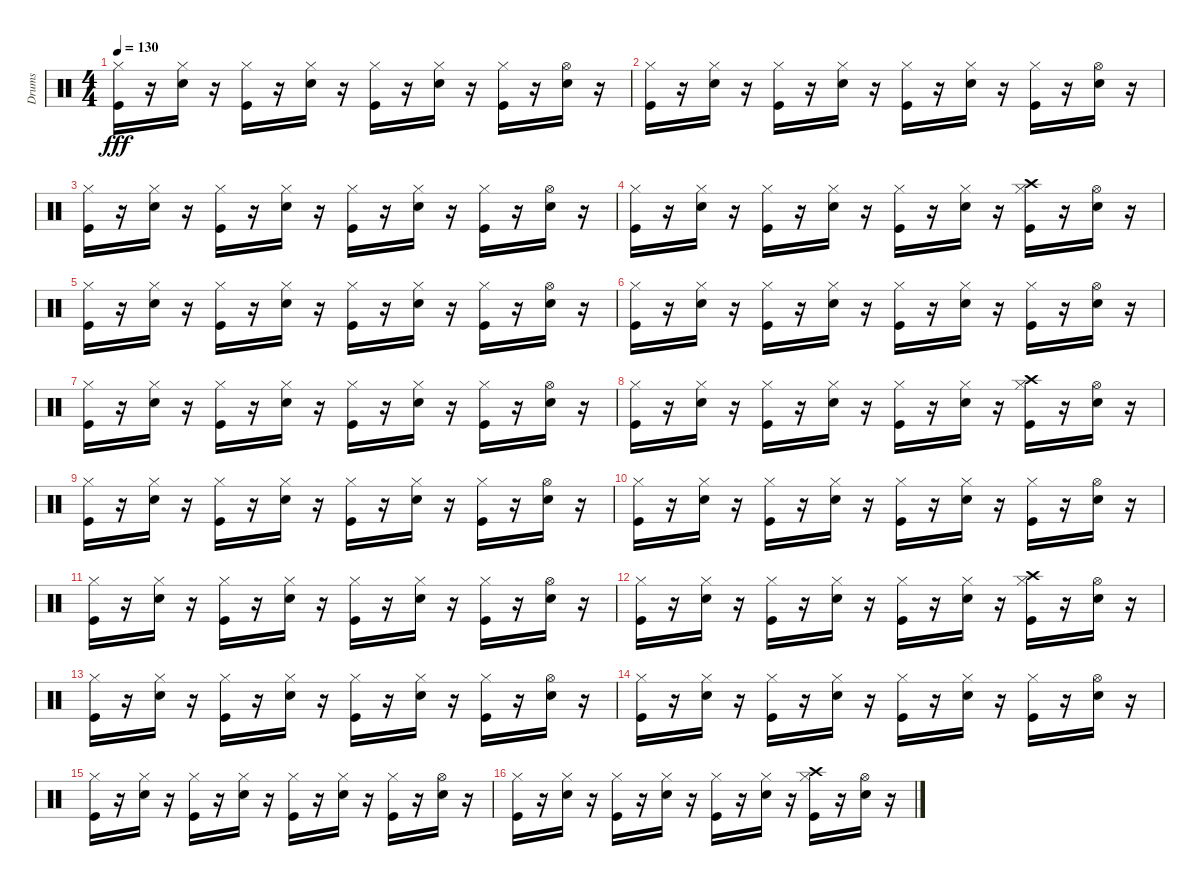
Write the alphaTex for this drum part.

\track ("Drums" "Drums") {instrument percussion}
\staff {score}
\articulation defaults
\ts (4 4)
\tempo 130
\clef neutral
\ks c
("Hi-Hat (closed)" "Kick (hit)").16{dy fff} r.16 ("Hi-Hat (closed)" "Electric Snare (hit)").16 r.16 ("Hi-Hat (closed)" "Kick (hit)").16 r.16 ("Hi-Hat (closed)" "Electric Snare (hit)").16 r.16 ("Hi-Hat (closed)" "Kick (hit)").16 r.16 ("Hi-Hat (closed)" "Electric Snare (hit)").16 r.16 ("Hi-Hat (closed)" "Kick (hit)").16 r.16 ("Hi-Hat (open)" "Electric Snare (hit)").16 r.16 |
("Hi-Hat (closed)" "Kick (hit)").16 r.16 ("Hi-Hat (closed)" "Electric Snare (hit)").16 r.16 ("Hi-Hat (closed)" "Kick (hit)").16 r.16 ("Hi-Hat (closed)" "Electric Snare (hit)").16 r.16 ("Hi-Hat (closed)" "Kick (hit)").16 r.16 ("Hi-Hat (closed)" "Electric Snare (hit)").16 r.16 ("Hi-Hat (closed)" "Kick (hit)").16 r.16 ("Hi-Hat (open)" "Electric Snare (hit)").16 r.16 |
("Hi-Hat (closed)" "Kick (hit)").16 r.16 ("Hi-Hat (closed)" "Electric Snare (hit)").16 r.16 ("Hi-Hat (closed)" "Kick (hit)").16 r.16 ("Hi-Hat (closed)" "Electric Snare (hit)").16 r.16 ("Hi-Hat (closed)" "Kick (hit)").16 r.16 ("Hi-Hat (closed)" "Electric Snare (hit)").16 r.16 ("Hi-Hat (closed)" "Kick (hit)").16 r.16 ("Hi-Hat (open)" "Electric Snare (hit)").16 r.16 |
("Hi-Hat (closed)" "Kick (hit)").16 r.16 ("Hi-Hat (closed)" "Electric Snare (hit)").16 r.16 ("Hi-Hat (closed)" "Kick (hit)").16 r.16 ("Hi-Hat (closed)" "Electric Snare (hit)").16 r.16 ("Hi-Hat (closed)" "Kick (hit)").16 r.16 ("Hi-Hat (closed)" "Electric Snare (hit)").16 r.16 ("Hi-Hat (closed)" "Crash high (hit)" "Kick (hit)").16 r.16 ("Hi-Hat (open)" "Electric Snare (hit)").16 r.16 |
("Hi-Hat (closed)" "Kick (hit)").16 r.16 ("Hi-Hat (closed)" "Electric Snare (hit)").16 r.16 ("Hi-Hat (closed)" "Kick (hit)").16 r.16 ("Hi-Hat (closed)" "Electric Snare (hit)").16 r.16 ("Hi-Hat (closed)" "Kick (hit)").16 r.16 ("Hi-Hat (closed)" "Electric Snare (hit)").16 r.16 ("Hi-Hat (closed)" "Kick (hit)").16 r.16 ("Hi-Hat (open)" "Electric Snare (hit)").16 r.16 |
("Hi-Hat (closed)" "Kick (hit)").16 r.16 ("Hi-Hat (closed)" "Electric Snare (hit)").16 r.16 ("Hi-Hat (closed)" "Kick (hit)").16 r.16 ("Hi-Hat (closed)" "Electric Snare (hit)").16 r.16 ("Hi-Hat (closed)" "Kick (hit)").16 r.16 ("Hi-Hat (closed)" "Electric Snare (hit)").16 r.16 ("Hi-Hat (closed)" "Kick (hit)").16 r.16 ("Hi-Hat (open)" "Electric Snare (hit)").16 r.16 |
("Hi-Hat (closed)" "Kick (hit)").16 r.16 ("Hi-Hat (closed)" "Electric Snare (hit)").16 r.16 ("Hi-Hat (closed)" "Kick (hit)").16 r.16 ("Hi-Hat (closed)" "Electric Snare (hit)").16 r.16 ("Hi-Hat (closed)" "Kick (hit)").16 r.16 ("Hi-Hat (closed)" "Electric Snare (hit)").16 r.16 ("Hi-Hat (closed)" "Kick (hit)").16 r.16 ("Hi-Hat (open)" "Electric Snare (hit)").16 r.16 |
("Hi-Hat (closed)" "Kick (hit)").16 r.16 ("Hi-Hat (closed)" "Electric Snare (hit)").16 r.16 ("Hi-Hat (closed)" "Kick (hit)").16 r.16 ("Hi-Hat (closed)" "Electric Snare (hit)").16 r.16 ("Hi-Hat (closed)" "Kick (hit)").16 r.16 ("Hi-Hat (closed)" "Electric Snare (hit)").16 r.16 ("Hi-Hat (closed)" "Crash high (hit)" "Kick (hit)").16 r.16 ("Hi-Hat (open)" "Electric Snare (hit)").16 r.16 |
("Hi-Hat (closed)" "Kick (hit)").16 r.16 ("Hi-Hat (closed)" "Electric Snare (hit)").16 r.16 ("Hi-Hat (closed)" "Kick (hit)").16 r.16 ("Hi-Hat (closed)" "Electric Snare (hit)").16 r.16 ("Hi-Hat (closed)" "Kick (hit)").16 r.16 ("Hi-Hat (closed)" "Electric Snare (hit)").16 r.16 ("Hi-Hat (closed)" "Kick (hit)").16 r.16 ("Hi-Hat (open)" "Electric Snare (hit)").16 r.16 |
("Hi-Hat (closed)" "Kick (hit)").16 r.16 ("Hi-Hat (closed)" "Electric Snare (hit)").16 r.16 ("Hi-Hat (closed)" "Kick (hit)").16 r.16 ("Hi-Hat (closed)" "Electric Snare (hit)").16 r.16 ("Hi-Hat (closed)" "Kick (hit)").16 r.16 ("Hi-Hat (closed)" "Electric Snare (hit)").16 r.16 ("Hi-Hat (closed)" "Kick (hit)").16 r.16 ("Hi-Hat (open)" "Electric Snare (hit)").16 r.16 |
("Hi-Hat (closed)" "Kick (hit)").16 r.16 ("Hi-Hat (closed)" "Electric Snare (hit)").16 r.16 ("Hi-Hat (closed)" "Kick (hit)").16 r.16 ("Hi-Hat (closed)" "Electric Snare (hit)").16 r.16 ("Hi-Hat (closed)" "Kick (hit)").16 r.16 ("Hi-Hat (closed)" "Electric Snare (hit)").16 r.16 ("Hi-Hat (closed)" "Kick (hit)").16 r.16 ("Hi-Hat (open)" "Electric Snare (hit)").16 r.16 |
("Hi-Hat (closed)" "Kick (hit)").16 r.16 ("Hi-Hat (closed)" "Electric Snare (hit)").16 r.16 ("Hi-Hat (closed)" "Kick (hit)").16 r.16 ("Hi-Hat (closed)" "Electric Snare (hit)").16 r.16 ("Hi-Hat (closed)" "Kick (hit)").16 r.16 ("Hi-Hat (closed)" "Electric Snare (hit)").16 r.16 ("Hi-Hat (closed)" "Crash high (hit)" "Kick (hit)").16 r.16 ("Hi-Hat (open)" "Electric Snare (hit)").16 r.16 |
("Hi-Hat (closed)" "Kick (hit)").16 r.16 ("Hi-Hat (closed)" "Electric Snare (hit)").16 r.16 ("Hi-Hat (closed)" "Kick (hit)").16 r.16 ("Hi-Hat (closed)" "Electric Snare (hit)").16 r.16 ("Hi-Hat (closed)" "Kick (hit)").16 r.16 ("Hi-Hat (closed)" "Electric Snare (hit)").16 r.16 ("Hi-Hat (closed)" "Kick (hit)").16 r.16 ("Hi-Hat (open)" "Electric Snare (hit)").16 r.16 |
("Hi-Hat (closed)" "Kick (hit)").16 r.16 ("Hi-Hat (closed)" "Electric Snare (hit)").16 r.16 ("Hi-Hat (closed)" "Kick (hit)").16 r.16 ("Hi-Hat (closed)" "Electric Snare (hit)").16 r.16 ("Hi-Hat (closed)" "Kick (hit)").16 r.16 ("Hi-Hat (closed)" "Electric Snare (hit)").16 r.16 ("Hi-Hat (closed)" "Kick (hit)").16 r.16 ("Hi-Hat (open)" "Electric Snare (hit)").16 r.16 |
("Hi-Hat (closed)" "Kick (hit)").16 r.16 ("Hi-Hat (closed)" "Electric Snare (hit)").16 r.16 ("Hi-Hat (closed)" "Kick (hit)").16 r.16 ("Hi-Hat (closed)" "Electric Snare (hit)").16 r.16 ("Hi-Hat (closed)" "Kick (hit)").16 r.16 ("Hi-Hat (closed)" "Electric Snare (hit)").16 r.16 ("Hi-Hat (closed)" "Kick (hit)").16 r.16 ("Hi-Hat (open)" "Electric Snare (hit)").16 r.16 |
("Hi-Hat (closed)" "Kick (hit)").16 r.16 ("Hi-Hat (closed)" "Electric Snare (hit)").16 r.16 ("Hi-Hat (closed)" "Kick (hit)").16 r.16 ("Hi-Hat (closed)" "Electric Snare (hit)").16 r.16 ("Hi-Hat (closed)" "Kick (hit)").16 r.16 ("Hi-Hat (closed)" "Electric Snare (hit)").16 r.16 ("Hi-Hat (closed)" "Crash high (hit)" "Kick (hit)").16 r.16 ("Hi-Hat (open)" "Electric Snare (hit)").16 r.16
